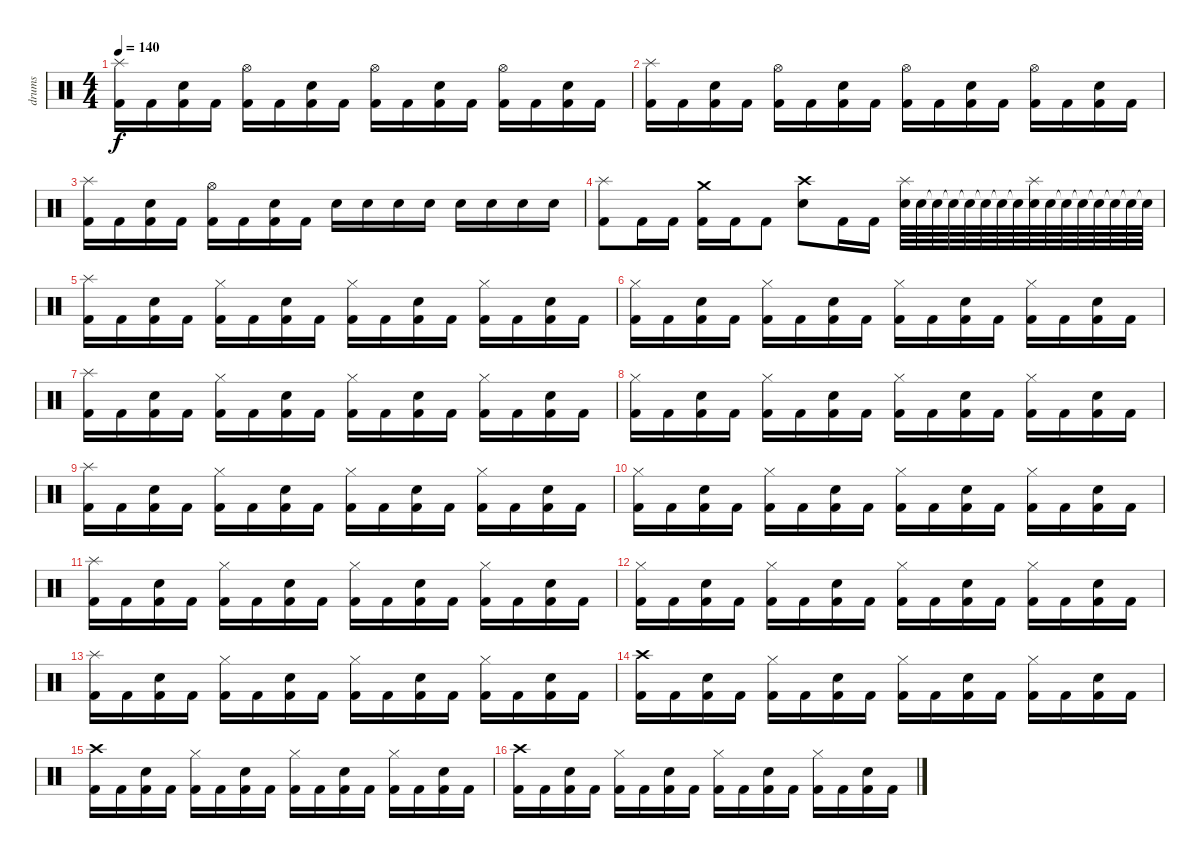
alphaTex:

\track ("drums" "drums") {instrument percussion}
\staff {score}
\articulation defaults
\ts (4 4)
\tempo 140
\clef neutral
\ks c
("Splash (hit)" "Kick (hit) 2").16{dy f} "Kick (hit) 2".16 ("Electric Snare (hit)" "Kick (hit) 2").16 "Kick (hit) 2".16 ("Hi-Hat (open)" "Kick (hit) 2").16 "Kick (hit) 2".16 ("Electric Snare (hit)" "Kick (hit) 2").16 "Kick (hit) 2".16 ("Hi-Hat (open)" "Kick (hit) 2").16 "Kick (hit) 2".16 ("Electric Snare (hit)" "Kick (hit) 2").16 "Kick (hit) 2".16 ("Hi-Hat (open)" "Kick (hit) 2").16 "Kick (hit) 2".16 ("Electric Snare (hit)" "Kick (hit) 2").16 "Kick (hit) 2".16 |
("Splash (hit)" "Kick (hit) 2").16 "Kick (hit) 2".16 ("Electric Snare (hit)" "Kick (hit) 2").16 "Kick (hit) 2".16 ("Hi-Hat (open)" "Kick (hit) 2").16 "Kick (hit) 2".16 ("Electric Snare (hit)" "Kick (hit) 2").16 "Kick (hit) 2".16 ("Hi-Hat (open)" "Kick (hit) 2").16 "Kick (hit) 2".16 ("Electric Snare (hit)" "Kick (hit) 2").16 "Kick (hit) 2".16 ("Hi-Hat (open)" "Kick (hit) 2").16 "Kick (hit) 2".16 ("Electric Snare (hit)" "Kick (hit) 2").16 "Kick (hit) 2".16 |
("Splash (hit)" "Kick (hit) 2").16 "Kick (hit) 2".16 ("Electric Snare (hit)" "Kick (hit) 2").16 "Kick (hit) 2".16 ("Hi-Hat (open)" "Kick (hit) 2").16 "Kick (hit) 2".16 ("Electric Snare (hit)" "Kick (hit) 2").16 "Kick (hit) 2".16 "Electric Snare (hit)".16 "Electric Snare (hit)".16 "Electric Snare (hit)".16 "Electric Snare (hit)".16 "Electric Snare (hit)".16 "Electric Snare (hit)".16 "Electric Snare (hit)".16 "Electric Snare (hit)".16 |
("Splash (hit)" "Kick (hit) 2").8 "Kick (hit) 2".16 "Kick (hit) 2".16 ("Crash medium (hit)" "Kick (hit) 2").16 "Kick (hit) 2".16 "Kick (hit) 2".8 ("Crash high (hit)" "Electric Snare (hit)").8 "Kick (hit) 2".16 "Kick (hit) 2".16 ("Splash (hit)" "Electric Snare (hit)").64 "Electric Snare (hit)".64 "Electric Snare (hit)"{t}.64 "Electric Snare (hit)"{t}.64 "Electric Snare (hit)"{t}.64 "Electric Snare (hit)"{t}.64 "Electric Snare (hit)"{t}.64 "Electric Snare (hit)"{t}.64 ("Splash (hit)" "Electric Snare (hit)").64 "Electric Snare (hit)".64 "Electric Snare (hit)"{t}.64 "Electric Snare (hit)"{t}.64 "Electric Snare (hit)"{t}.64 "Electric Snare (hit)"{t}.64 "Electric Snare (hit)"{t}.64 "Electric Snare (hit)"{t}.64 |
("Splash (hit)" "Kick (hit) 2").16 "Kick (hit) 2".16 ("Electric Snare (hit)" "Kick (hit) 2").16 "Kick (hit) 2".16 ("Hi-Hat (closed)" "Kick (hit) 2").16 "Kick (hit) 2".16 ("Electric Snare (hit)" "Kick (hit) 2").16 "Kick (hit) 2".16 ("Hi-Hat (closed)" "Kick (hit) 2").16 "Kick (hit) 2".16 ("Electric Snare (hit)" "Kick (hit) 2").16 "Kick (hit) 2".16 ("Hi-Hat (closed)" "Kick (hit) 2").16 "Kick (hit) 2".16 ("Electric Snare (hit)" "Kick (hit) 2").16 "Kick (hit) 2".16 |
("Hi-Hat (closed)" "Kick (hit) 2").16 "Kick (hit) 2".16 ("Electric Snare (hit)" "Kick (hit) 2").16 "Kick (hit) 2".16 ("Hi-Hat (closed)" "Kick (hit) 2").16 "Kick (hit) 2".16 ("Electric Snare (hit)" "Kick (hit) 2").16 "Kick (hit) 2".16 ("Hi-Hat (closed)" "Kick (hit) 2").16 "Kick (hit) 2".16 ("Electric Snare (hit)" "Kick (hit) 2").16 "Kick (hit) 2".16 ("Hi-Hat (closed)" "Kick (hit) 2").16 "Kick (hit) 2".16 ("Electric Snare (hit)" "Kick (hit) 2").16 "Kick (hit) 2".16 |
("Splash (hit)" "Kick (hit) 2").16 "Kick (hit) 2".16 ("Electric Snare (hit)" "Kick (hit) 2").16 "Kick (hit) 2".16 ("Hi-Hat (closed)" "Kick (hit) 2").16 "Kick (hit) 2".16 ("Electric Snare (hit)" "Kick (hit) 2").16 "Kick (hit) 2".16 ("Hi-Hat (closed)" "Kick (hit) 2").16 "Kick (hit) 2".16 ("Electric Snare (hit)" "Kick (hit) 2").16 "Kick (hit) 2".16 ("Hi-Hat (closed)" "Kick (hit) 2").16 "Kick (hit) 2".16 ("Electric Snare (hit)" "Kick (hit) 2").16 "Kick (hit) 2".16 |
("Hi-Hat (closed)" "Kick (hit) 2").16 "Kick (hit) 2".16 ("Electric Snare (hit)" "Kick (hit) 2").16 "Kick (hit) 2".16 ("Hi-Hat (closed)" "Kick (hit) 2").16 "Kick (hit) 2".16 ("Electric Snare (hit)" "Kick (hit) 2").16 "Kick (hit) 2".16 ("Hi-Hat (closed)" "Kick (hit) 2").16 "Kick (hit) 2".16 ("Electric Snare (hit)" "Kick (hit) 2").16 "Kick (hit) 2".16 ("Hi-Hat (closed)" "Kick (hit) 2").16 "Kick (hit) 2".16 ("Electric Snare (hit)" "Kick (hit) 2").16 "Kick (hit) 2".16 |
("Splash (hit)" "Kick (hit) 2").16 "Kick (hit) 2".16 ("Electric Snare (hit)" "Kick (hit) 2").16 "Kick (hit) 2".16 ("Hi-Hat (closed)" "Kick (hit) 2").16 "Kick (hit) 2".16 ("Electric Snare (hit)" "Kick (hit) 2").16 "Kick (hit) 2".16 ("Hi-Hat (closed)" "Kick (hit) 2").16 "Kick (hit) 2".16 ("Electric Snare (hit)" "Kick (hit) 2").16 "Kick (hit) 2".16 ("Hi-Hat (closed)" "Kick (hit) 2").16 "Kick (hit) 2".16 ("Electric Snare (hit)" "Kick (hit) 2").16 "Kick (hit) 2".16 |
("Hi-Hat (closed)" "Kick (hit) 2").16 "Kick (hit) 2".16 ("Electric Snare (hit)" "Kick (hit) 2").16 "Kick (hit) 2".16 ("Hi-Hat (closed)" "Kick (hit) 2").16 "Kick (hit) 2".16 ("Electric Snare (hit)" "Kick (hit) 2").16 "Kick (hit) 2".16 ("Hi-Hat (closed)" "Kick (hit) 2").16 "Kick (hit) 2".16 ("Electric Snare (hit)" "Kick (hit) 2").16 "Kick (hit) 2".16 ("Hi-Hat (closed)" "Kick (hit) 2").16 "Kick (hit) 2".16 ("Electric Snare (hit)" "Kick (hit) 2").16 "Kick (hit) 2".16 |
("Splash (hit)" "Kick (hit) 2").16 "Kick (hit) 2".16 ("Electric Snare (hit)" "Kick (hit) 2").16 "Kick (hit) 2".16 ("Hi-Hat (closed)" "Kick (hit) 2").16 "Kick (hit) 2".16 ("Electric Snare (hit)" "Kick (hit) 2").16 "Kick (hit) 2".16 ("Hi-Hat (closed)" "Kick (hit) 2").16 "Kick (hit) 2".16 ("Electric Snare (hit)" "Kick (hit) 2").16 "Kick (hit) 2".16 ("Hi-Hat (closed)" "Kick (hit) 2").16 "Kick (hit) 2".16 ("Electric Snare (hit)" "Kick (hit) 2").16 "Kick (hit) 2".16 |
("Hi-Hat (closed)" "Kick (hit) 2").16 "Kick (hit) 2".16 ("Electric Snare (hit)" "Kick (hit) 2").16 "Kick (hit) 2".16 ("Hi-Hat (closed)" "Kick (hit) 2").16 "Kick (hit) 2".16 ("Electric Snare (hit)" "Kick (hit) 2").16 "Kick (hit) 2".16 ("Hi-Hat (closed)" "Kick (hit) 2").16 "Kick (hit) 2".16 ("Electric Snare (hit)" "Kick (hit) 2").16 "Kick (hit) 2".16 ("Hi-Hat (closed)" "Kick (hit) 2").16 "Kick (hit) 2".16 ("Electric Snare (hit)" "Kick (hit) 2").16 "Kick (hit) 2".16 |
("Splash (hit)" "Kick (hit) 2").16 "Kick (hit) 2".16 ("Electric Snare (hit)" "Kick (hit) 2").16 "Kick (hit) 2".16 ("Hi-Hat (closed)" "Kick (hit) 2").16 "Kick (hit) 2".16 ("Electric Snare (hit)" "Kick (hit) 2").16 "Kick (hit) 2".16 ("Hi-Hat (closed)" "Kick (hit) 2").16 "Kick (hit) 2".16 ("Electric Snare (hit)" "Kick (hit) 2").16 "Kick (hit) 2".16 ("Hi-Hat (closed)" "Kick (hit) 2").16 "Kick (hit) 2".16 ("Electric Snare (hit)" "Kick (hit) 2").16 "Kick (hit) 2".16 |
("Crash high (hit)" "Kick (hit) 2").16 "Kick (hit) 2".16 ("Electric Snare (hit)" "Kick (hit) 2").16 "Kick (hit) 2".16 ("Hi-Hat (closed)" "Kick (hit) 2").16 "Kick (hit) 2".16 ("Electric Snare (hit)" "Kick (hit) 2").16 "Kick (hit) 2".16 ("Hi-Hat (closed)" "Kick (hit) 2").16 "Kick (hit) 2".16 ("Electric Snare (hit)" "Kick (hit) 2").16 "Kick (hit) 2".16 ("Hi-Hat (closed)" "Kick (hit) 2").16 "Kick (hit) 2".16 ("Electric Snare (hit)" "Kick (hit) 2").16 "Kick (hit) 2".16 |
("Crash high (hit)" "Kick (hit) 2").16 "Kick (hit) 2".16 ("Electric Snare (hit)" "Kick (hit) 2").16 "Kick (hit) 2".16 ("Hi-Hat (closed)" "Kick (hit) 2").16 "Kick (hit) 2".16 ("Electric Snare (hit)" "Kick (hit) 2").16 "Kick (hit) 2".16 ("Hi-Hat (closed)" "Kick (hit) 2").16 "Kick (hit) 2".16 ("Electric Snare (hit)" "Kick (hit) 2").16 "Kick (hit) 2".16 ("Hi-Hat (closed)" "Kick (hit) 2").16 "Kick (hit) 2".16 ("Electric Snare (hit)" "Kick (hit) 2").16 "Kick (hit) 2".16 |
("Crash high (hit)" "Kick (hit) 2").16 "Kick (hit) 2".16 ("Electric Snare (hit)" "Kick (hit) 2").16 "Kick (hit) 2".16 ("Hi-Hat (closed)" "Kick (hit) 2").16 "Kick (hit) 2".16 ("Electric Snare (hit)" "Kick (hit) 2").16 "Kick (hit) 2".16 ("Hi-Hat (closed)" "Kick (hit) 2").16 "Kick (hit) 2".16 ("Electric Snare (hit)" "Kick (hit) 2").16 "Kick (hit) 2".16 ("Hi-Hat (closed)" "Kick (hit) 2").16 "Kick (hit) 2".16 ("Electric Snare (hit)" "Kick (hit) 2").16 "Kick (hit) 2".16
